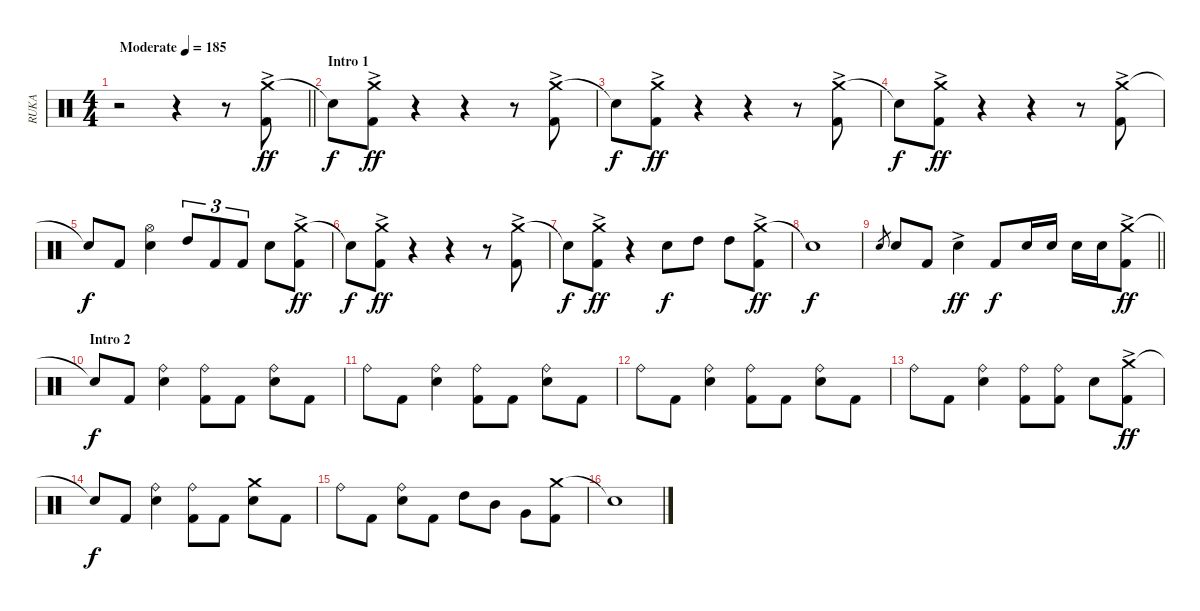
\track ("RUKA" "RUKA") {instrument percussion}
\staff {score}
\articulation defaults
\ts (4 4)
\tempo (185 "Moderate")
\clef neutral
\barLineRight lightlight
\ks c
r.2{dy ff} r.4 r.8 ("Crash medium (hit)"{ac} "Kick (hit) 2").8 |
\section ("" "Intro 1")
"Snare (hit)"{t}.8{dy f} ("Crash medium (hit)"{ac} "Kick (hit) 2").8{dy ff} r.4 r.4 r.8 ("Crash medium (hit)"{ac} "Kick (hit) 2").8 |
"Snare (hit)"{t}.8{dy f} ("Crash medium (hit)"{ac} "Kick (hit) 2").8{dy ff} r.4 r.4 r.8 ("Crash medium (hit)"{ac} "Kick (hit) 2").8 |
"Snare (hit)"{t}.8{dy f} ("Crash medium (hit)"{ac} "Kick (hit) 2").8{dy ff} r.4 r.4 r.8 ("Crash medium (hit)"{ac} "Kick (hit) 2").8 |
"Snare (hit)"{t}.8{dy f} "Kick (hit) 2".8 ("Hi-Hat (open)" "Electric Snare (hit)").4 "High Tom (hit)".8{tu (3 2)} "Kick (hit) 2".8{tu (3 2)} "Kick (hit) 2".8{tu (3 2)} "Electric Snare (hit)".8 ("Crash medium (hit)"{ac} "Kick (hit) 2").8{dy ff} |
"Snare (hit)"{t}.8{dy f} ("Crash medium (hit)"{ac} "Kick (hit) 2").8{dy ff} r.4 r.4 r.8 ("Crash medium (hit)"{ac} "Kick (hit) 2").8 |
"Snare (hit)"{t}.8{dy f} ("Crash medium (hit)"{ac} "Kick (hit) 2").8{dy ff} r.4 "Electric Snare (hit)".8{dy f} "High Tom (hit)".8 "High Tom (hit)".8 ("Crash medium (hit)"{ac} "Kick (hit) 2").8{dy ff} |
"Snare (hit)"{t}.1{dy f} |
\barLineRight lightlight "Electric Snare (hit)".8{gr} "Electric Snare (hit)".8 "Kick (hit) 2".8 "Electric Snare (hit)"{ac}.4{dy ff} "Kick (hit) 2".8{dy f} "Electric Snare (hit)".16 "Electric Snare (hit)".16 "Electric Snare (hit)".16 "Electric Snare (hit)".16
("Crash medium (hit)"{ac} "Kick (hit) 2").8{dy ff} |
\section ("" "Intro 2")
"Snare (hit)"{t}.8{dy f} "Kick (hit) 2".8 ("Ride (bell)" "Electric Snare (hit)").4 ("Ride (bell)" "Kick (hit) 2").8 "Kick (hit) 2".8 ("Ride (bell)" "Electric Snare (hit)").8 "Kick (hit) 2".8 |
"Ride (bell)".8 "Kick (hit) 2".8 ("Ride (bell)" "Electric Snare (hit)").4 ("Ride (bell)" "Kick (hit) 2").8 "Kick (hit) 2".8 ("Ride (bell)" "Electric Snare (hit)").8 "Kick (hit) 2".8 |
"Ride (bell)".8 "Kick (hit) 2".8 ("Ride (bell)" "Electric Snare (hit)").4 ("Ride (bell)" "Kick (hit) 2").8 "Kick (hit) 2".8 ("Ride (bell)" "Electric Snare (hit)").8 "Kick (hit) 2".8 |
"Ride (bell)".8 "Kick (hit) 2".8 ("Ride (bell)" "Electric Snare (hit)").4 ("Ride (bell)" "Kick (hit) 2").8 ("Ride (bell)" "Kick (hit) 2").8 "Electric Snare (hit)".8 ("Crash medium (hit)"{ac} "Kick (hit) 2").8{dy ff} |
"Snare (hit)"{t}.8{dy f} "Kick (hit) 2".8 ("Ride (bell)" "Electric Snare (hit)").4 ("Ride (bell)" "Kick (hit) 2").8 "Kick (hit) 2".8 ("Crash medium (hit)" "Electric Snare (hit)").8 "Kick (hit) 2".8 |
"Ride (bell)".8 "Kick (hit) 2".8 ("Ride (bell)" "Electric Snare (hit)").8 "Kick (hit) 2".8 "High Tom (hit)".8 "Mid Tom (hit)".8 "Very Low Tom (hit)".8 ("Crash medium (hit)" "Kick (hit) 2").8 |
"Snare (hit)"{t}.1
